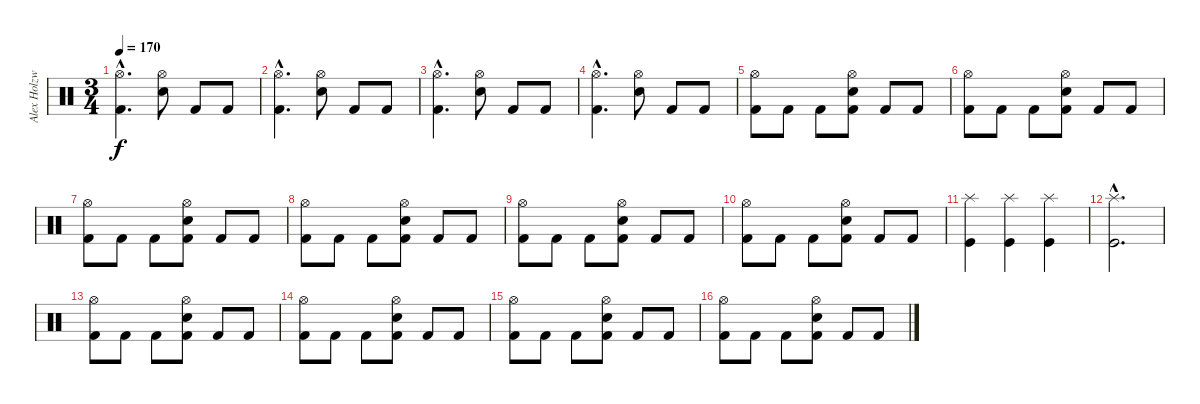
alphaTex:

\track ("Alex Holzwarth - Drums" "Alex Holzw") {instrument percussion}
\staff {score}
\articulation defaults
\ts (3 4)
\tempo 170
\clef neutral
\ks c
("Hi-Hat (open)"{hac} "Kick (hit) 2"{hac}).4{d dy f} ("Hi-Hat (open)" "Snare (hit) 2").8 "Kick (hit) 2".8 "Kick (hit) 2".8 |
("Hi-Hat (open)"{hac} "Kick (hit) 2"{hac}).4{d} ("Hi-Hat (open)" "Snare (hit) 2").8 "Kick (hit) 2".8 "Kick (hit) 2".8 |
("Hi-Hat (open)"{hac} "Kick (hit) 2"{hac}).4{d} ("Hi-Hat (open)" "Snare (hit) 2").8 "Kick (hit) 2".8 "Kick (hit) 2".8 |
("Hi-Hat (open)"{hac} "Kick (hit) 2"{hac}).4{d} ("Hi-Hat (open)" "Snare (hit) 2").8 "Kick (hit) 2".8 "Kick (hit) 2".8 |
("Hi-Hat (open)" "Kick (hit) 2").8 "Kick (hit) 2".8 "Kick (hit) 2".8 ("Hi-Hat (open)" "Snare (hit) 2" "Kick (hit) 2").8 "Kick (hit) 2".8 "Kick (hit) 2".8 |
("Hi-Hat (open)" "Kick (hit) 2").8 "Kick (hit) 2".8 "Kick (hit) 2".8 ("Hi-Hat (open)" "Snare (hit) 2" "Kick (hit) 2").8 "Kick (hit) 2".8 "Kick (hit) 2".8 |
("Hi-Hat (open)" "Kick (hit) 2").8 "Kick (hit) 2".8 "Kick (hit) 2".8 ("Hi-Hat (open)" "Snare (hit) 2" "Kick (hit) 2").8 "Kick (hit) 2".8 "Kick (hit) 2".8 |
("Hi-Hat (open)" "Kick (hit) 2").8 "Kick (hit) 2".8 "Kick (hit) 2".8 ("Hi-Hat (open)" "Snare (hit) 2" "Kick (hit) 2").8 "Kick (hit) 2".8 "Kick (hit) 2".8 |
("Hi-Hat (open)" "Kick (hit) 2").8 "Kick (hit) 2".8 "Kick (hit) 2".8 ("Hi-Hat (open)" "Snare (hit) 2" "Kick (hit) 2").8 "Kick (hit) 2".8 "Kick (hit) 2".8 |
("Hi-Hat (open)" "Kick (hit) 2").8 "Kick (hit) 2".8 "Kick (hit) 2".8 ("Hi-Hat (open)" "Snare (hit) 2" "Kick (hit) 2").8 "Kick (hit) 2".8 "Kick (hit) 2".8 |
("Splash (hit)" "Kick (hit)").4 ("Splash (hit)" "Kick (hit)").4 ("Splash (hit)" "Kick (hit)").4 |
("Splash (hit)"{hac} "Kick (hit)"{hac}).2{d} |
("Hi-Hat (open)" "Kick (hit) 2").8 "Kick (hit) 2".8 "Kick (hit) 2".8 ("Hi-Hat (open)" "Snare (hit) 2" "Kick (hit) 2").8 "Kick (hit) 2".8 "Kick (hit) 2".8 |
("Hi-Hat (open)" "Kick (hit) 2").8 "Kick (hit) 2".8 "Kick (hit) 2".8 ("Hi-Hat (open)" "Snare (hit) 2" "Kick (hit) 2").8 "Kick (hit) 2".8 "Kick (hit) 2".8 |
("Hi-Hat (open)" "Kick (hit) 2").8 "Kick (hit) 2".8 "Kick (hit) 2".8 ("Hi-Hat (open)" "Snare (hit) 2" "Kick (hit) 2").8 "Kick (hit) 2".8 "Kick (hit) 2".8 |
("Hi-Hat (open)" "Kick (hit) 2").8 "Kick (hit) 2".8 "Kick (hit) 2".8 ("Hi-Hat (open)" "Snare (hit) 2" "Kick (hit) 2").8 "Kick (hit) 2".8 "Kick (hit) 2".8
